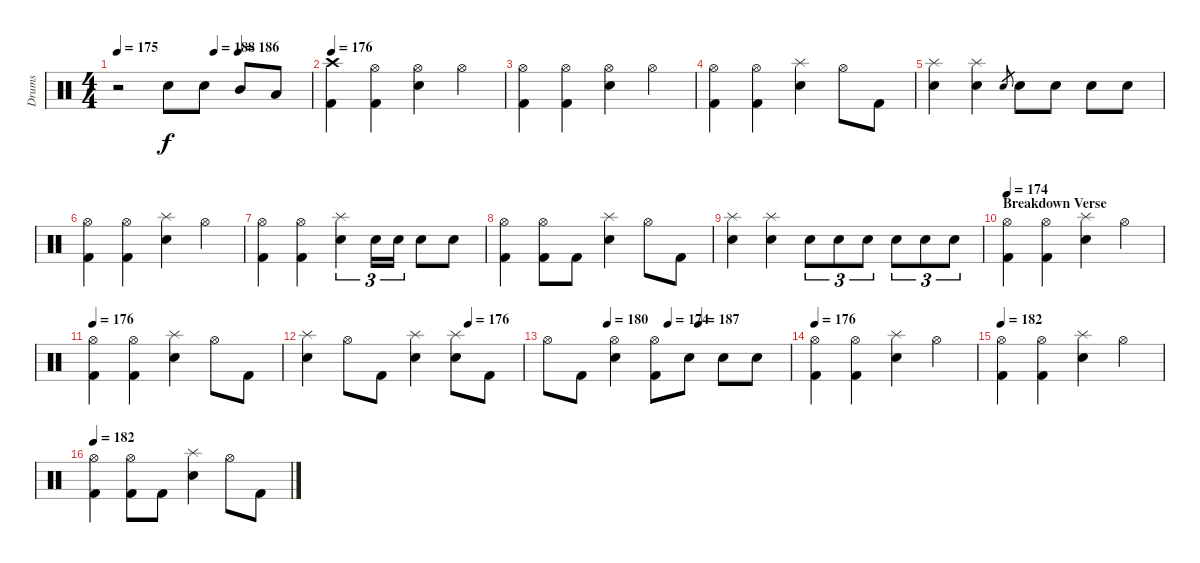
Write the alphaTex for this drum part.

\track ("Drums" "Drums") {instrument percussion}
\staff {score}
\articulation defaults
\ts (4 4)
\tempo 175
\tempo (188 0.5)
\tempo (186 0.625)
\clef neutral
\ks c
r.2{dy f} "Snare (hit) 2".8 "Snare (hit) 2".8 "Mid Tom (hit)".8 "Low Tom (hit)".8 |
\tempo 176
("Crash high (hit)" "Kick (hit) 2").4 ("Kick (hit) 2" "Hi-Hat (open)").4 ("Snare (hit) 2" "Hi-Hat (open)").4 "Hi-Hat (open)".4 |
("Kick (hit) 2" "Hi-Hat (open)").4 ("Kick (hit) 2" "Hi-Hat (open)").4 ("Snare (hit) 2" "Hi-Hat (open)").4 "Hi-Hat (open)".4 |
("Kick (hit) 2" "Hi-Hat (open)").4 ("Kick (hit) 2" "Hi-Hat (open)").4 ("Snare (hit) 2" "Splash (hit)").4 "Hi-Hat (open)".8 "Kick (hit) 2".8 |
("Snare (hit) 2" "Splash (hit)").4 ("Snare (hit) 2" "Splash (hit)").4 "Snare (hit)".8{gr} "Snare (hit) 2".8 "Snare (hit) 2".8 "Snare (hit) 2".8 "Snare (hit) 2".8 |
("Kick (hit) 2" "Hi-Hat (open)").4 ("Kick (hit) 2" "Hi-Hat (open)").4 ("Snare (hit) 2" "Splash (hit)").4 "Hi-Hat (open)".4 |
("Kick (hit) 2" "Hi-Hat (open)").4 ("Kick (hit) 2" "Hi-Hat (open)").4 ("Snare (hit) 2" "Splash (hit)").4{tu (3 2)} "Snare (hit) 2".16{tu (3 2)} "Snare (hit) 2".16{tu (3 2)} "Snare (hit) 2".8 "Snare (hit) 2".8 |
("Kick (hit) 2" "Hi-Hat (open)").4 ("Kick (hit) 2" "Hi-Hat (open)").8 "Kick (hit) 2".8 ("Snare (hit) 2" "Splash (hit)").4 "Hi-Hat (open)".8 "Kick (hit) 2".8 |
("Snare (hit) 2" "Splash (hit)").4 ("Snare (hit) 2" "Splash (hit)").4 "Snare (hit) 2".8{tu (3 2)} "Snare (hit) 2".8{tu (3 2)} "Snare (hit) 2".8{tu (3 2)} "Snare (hit) 2".8{tu (3 2)} "Snare (hit) 2".8{tu (3 2)} "Snare (hit) 2".8{tu (3 2)} |
\section ("" "Breakdown Verse")
\tempo 174
("Kick (hit) 2" "Hi-Hat (open)").4 ("Kick (hit) 2" "Hi-Hat (open)").4 ("Snare (hit) 2" "Splash (hit)").4 "Hi-Hat (open)".4 |
\tempo 176
("Kick (hit) 2" "Hi-Hat (open)").4 ("Kick (hit) 2" "Hi-Hat (open)").4 ("Snare (hit) 2" "Splash (hit)").4 "Hi-Hat (open)".8 "Kick (hit) 2".8 |
\tempo (176 0.75)
("Snare (hit) 2" "Splash (hit)").4 "Hi-Hat (open)".8 "Kick (hit) 2".8 ("Snare (hit) 2" "Splash (hit)").4 ("Snare (hit) 2" "Splash (hit)").8 "Kick (hit) 2".8 |
\tempo (180 0.25)
\tempo (174 0.5)
\tempo (187 0.625)
"Hi-Hat (open)".8 "Kick (hit) 2".8 ("Snare (hit) 2" "Hi-Hat (open)").4 ("Kick (hit) 2" "Hi-Hat (open)").8 "Snare (hit) 2".8 "Snare (hit) 2".8 "Snare (hit) 2".8 |
\tempo 176
("Kick (hit) 2" "Hi-Hat (open)").4 ("Kick (hit) 2" "Hi-Hat (open)").4 ("Snare (hit) 2" "Splash (hit)").4 "Hi-Hat (open)".4 |
\tempo 182
("Kick (hit) 2" "Hi-Hat (open)").4 ("Kick (hit) 2" "Hi-Hat (open)").4 ("Snare (hit) 2" "Splash (hit)").4 "Hi-Hat (open)".4 |
\tempo 182
("Kick (hit) 2" "Hi-Hat (open)").4 ("Kick (hit) 2" "Hi-Hat (open)").8 "Kick (hit) 2".8 ("Snare (hit) 2" "Splash (hit)").4 "Hi-Hat (open)".8 "Kick (hit) 2".8
